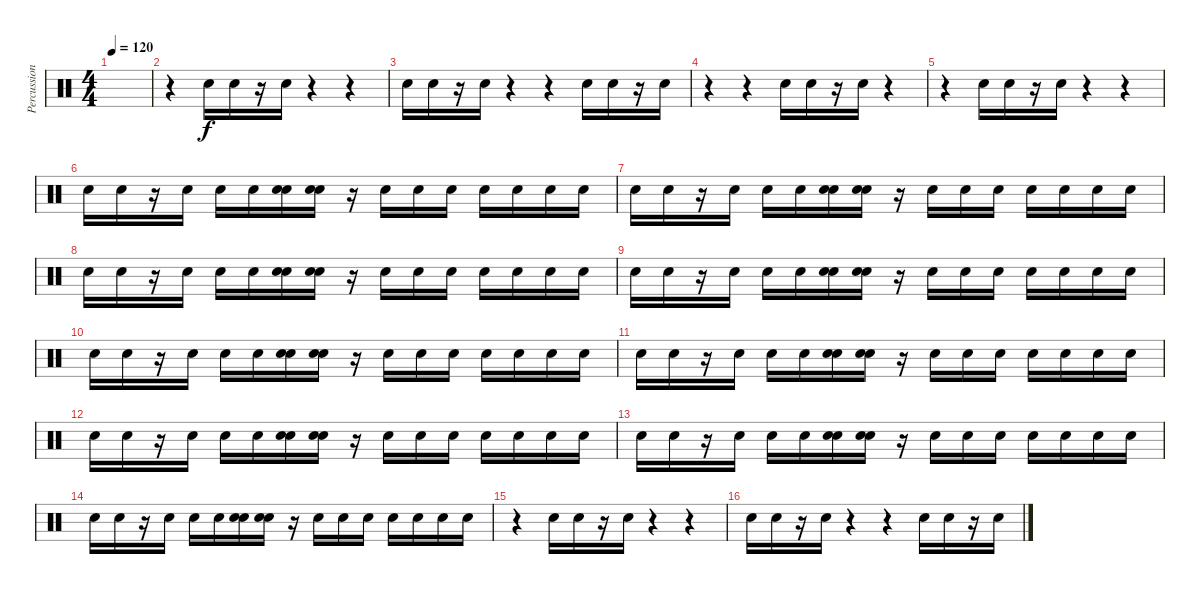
\track ("Percussion" "Percussion") {instrument percussion}
\staff {score}
\articulation defaults
\ts (4 4)
\tempo 120
\clef neutral
\ks c
|
r.4 "Electric Snare (hit)".16 "Electric Snare (hit)".16 r.16 "Electric Snare (hit)".16 r.4 r.4 |
"Electric Snare (hit)".16 "Electric Snare (hit)".16 r.16 "Electric Snare (hit)".16 r.4 r.4 "Electric Snare (hit)".16 "Electric Snare (hit)".16 r.16 "Electric Snare (hit)".16 |
r.4 r.4 "Electric Snare (hit)".16 "Electric Snare (hit)".16 r.16 "Electric Snare (hit)".16 r.4 |
r.4 "Electric Snare (hit)".16 "Electric Snare (hit)".16 r.16 "Electric Snare (hit)".16 r.4 r.4 |
"Electric Snare (hit)".16 "Electric Snare (hit)".16 r.16 "Electric Snare (hit)".16 "Electric Snare (hit)".16 "Electric Snare (hit)".16 ("Electric Snare (hit)" "Electric Snare (hit)").16 ("Electric Snare (hit)" "Electric Snare (hit)").16 r.16 "Electric Snare (hit)".16 "Electric Snare (hit)".16 "Electric Snare (hit)".16 "Electric Snare (hit)".16 "Electric Snare (hit)".16 "Electric Snare (hit)".16 "Electric Snare (hit)".16 |
"Electric Snare (hit)".16 "Electric Snare (hit)".16 r.16 "Electric Snare (hit)".16 "Electric Snare (hit)".16 "Electric Snare (hit)".16 ("Electric Snare (hit)" "Electric Snare (hit)").16 ("Electric Snare (hit)" "Electric Snare (hit)").16 r.16 "Electric Snare (hit)".16 "Electric Snare (hit)".16 "Electric Snare (hit)".16 "Electric Snare (hit)".16 "Electric Snare (hit)".16 "Electric Snare (hit)".16 "Electric Snare (hit)".16 |
"Electric Snare (hit)".16 "Electric Snare (hit)".16 r.16 "Electric Snare (hit)".16 "Electric Snare (hit)".16 "Electric Snare (hit)".16 ("Electric Snare (hit)" "Electric Snare (hit)").16 ("Electric Snare (hit)" "Electric Snare (hit)").16 r.16 "Electric Snare (hit)".16 "Electric Snare (hit)".16 "Electric Snare (hit)".16 "Electric Snare (hit)".16 "Electric Snare (hit)".16 "Electric Snare (hit)".16 "Electric Snare (hit)".16 |
"Electric Snare (hit)".16 "Electric Snare (hit)".16 r.16 "Electric Snare (hit)".16 "Electric Snare (hit)".16 "Electric Snare (hit)".16 ("Electric Snare (hit)" "Electric Snare (hit)").16 ("Electric Snare (hit)" "Electric Snare (hit)").16 r.16 "Electric Snare (hit)".16 "Electric Snare (hit)".16 "Electric Snare (hit)".16 "Electric Snare (hit)".16 "Electric Snare (hit)".16 "Electric Snare (hit)".16 "Electric Snare (hit)".16 |
"Electric Snare (hit)".16 "Electric Snare (hit)".16 r.16 "Electric Snare (hit)".16 "Electric Snare (hit)".16 "Electric Snare (hit)".16 ("Electric Snare (hit)" "Electric Snare (hit)").16 ("Electric Snare (hit)" "Electric Snare (hit)").16 r.16 "Electric Snare (hit)".16 "Electric Snare (hit)".16 "Electric Snare (hit)".16 "Electric Snare (hit)".16 "Electric Snare (hit)".16 "Electric Snare (hit)".16 "Electric Snare (hit)".16 |
"Electric Snare (hit)".16 "Electric Snare (hit)".16 r.16 "Electric Snare (hit)".16 "Electric Snare (hit)".16 "Electric Snare (hit)".16 ("Electric Snare (hit)" "Electric Snare (hit)").16 ("Electric Snare (hit)" "Electric Snare (hit)").16 r.16 "Electric Snare (hit)".16 "Electric Snare (hit)".16 "Electric Snare (hit)".16 "Electric Snare (hit)".16 "Electric Snare (hit)".16 "Electric Snare (hit)".16 "Electric Snare (hit)".16 |
"Electric Snare (hit)".16 "Electric Snare (hit)".16 r.16 "Electric Snare (hit)".16 "Electric Snare (hit)".16 "Electric Snare (hit)".16 ("Electric Snare (hit)" "Electric Snare (hit)").16 ("Electric Snare (hit)" "Electric Snare (hit)").16 r.16 "Electric Snare (hit)".16 "Electric Snare (hit)".16 "Electric Snare (hit)".16 "Electric Snare (hit)".16 "Electric Snare (hit)".16 "Electric Snare (hit)".16 "Electric Snare (hit)".16 |
"Electric Snare (hit)".16 "Electric Snare (hit)".16 r.16 "Electric Snare (hit)".16 "Electric Snare (hit)".16 "Electric Snare (hit)".16 ("Electric Snare (hit)" "Electric Snare (hit)").16 ("Electric Snare (hit)" "Electric Snare (hit)").16 r.16 "Electric Snare (hit)".16 "Electric Snare (hit)".16 "Electric Snare (hit)".16 "Electric Snare (hit)".16 "Electric Snare (hit)".16 "Electric Snare (hit)".16 "Electric Snare (hit)".16 |
"Electric Snare (hit)".16 "Electric Snare (hit)".16 r.16 "Electric Snare (hit)".16 "Electric Snare (hit)".16 "Electric Snare (hit)".16 ("Electric Snare (hit)" "Electric Snare (hit)").16 ("Electric Snare (hit)" "Electric Snare (hit)").16 r.16 "Electric Snare (hit)".16 "Electric Snare (hit)".16 "Electric Snare (hit)".16 "Electric Snare (hit)".16 "Electric Snare (hit)".16 "Electric Snare (hit)".16 "Electric Snare (hit)".16 |
r.4 "Electric Snare (hit)".16 "Electric Snare (hit)".16 r.16 "Electric Snare (hit)".16 r.4 r.4 |
"Electric Snare (hit)".16 "Electric Snare (hit)".16 r.16 "Electric Snare (hit)".16 r.4 r.4 "Electric Snare (hit)".16 "Electric Snare (hit)".16 r.16 "Electric Snare (hit)".16
